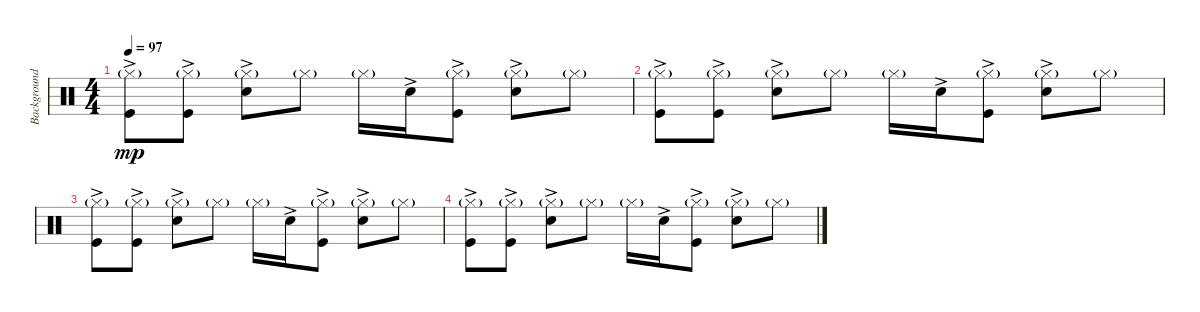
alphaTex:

\track ("Background Drums" "Background") {instrument percussion}
\staff {score}
\articulation defaults
\ts (4 4)
\tempo 97
\clef neutral
\ks c
("Hi-Hat (closed)"{g} "Kick (hit)"{ac}).8{dy mp} ("Hi-Hat (closed)"{g} "Kick (hit)"{ac}).8 ("Hi-Hat (closed)"{g} "Hand Clap (hit)"{ac}).8 "Hi-Hat (closed)"{g}.8 "Hi-Hat (closed)"{g}.16 "Hand Clap (hit)"{ac}.16 ("Hi-Hat (closed)"{g} "Kick (hit)"{ac}).8 ("Hi-Hat (closed)"{g} "Hand Clap (hit)"{ac}).8 "Hi-Hat (closed)"{g}.8 |
("Hi-Hat (closed)"{g} "Kick (hit)"{ac}).8 ("Hi-Hat (closed)"{g} "Kick (hit)"{ac}).8 ("Hi-Hat (closed)"{g} "Hand Clap (hit)"{ac}).8 "Hi-Hat (closed)"{g}.8 "Hi-Hat (closed)"{g}.16 "Hand Clap (hit)"{ac}.16 ("Hi-Hat (closed)"{g} "Kick (hit)"{ac}).8 ("Hi-Hat (closed)"{g} "Hand Clap (hit)"{ac}).8 "Hi-Hat (closed)"{g}.8 |
("Hi-Hat (closed)"{g} "Kick (hit)"{ac}).8 ("Hi-Hat (closed)"{g} "Kick (hit)"{ac}).8 ("Hi-Hat (closed)"{g} "Hand Clap (hit)"{ac}).8 "Hi-Hat (closed)"{g}.8 "Hi-Hat (closed)"{g}.16 "Hand Clap (hit)"{ac}.16 ("Hi-Hat (closed)"{g} "Kick (hit)"{ac}).8 ("Hi-Hat (closed)"{g} "Hand Clap (hit)"{ac}).8 "Hi-Hat (closed)"{g}.8 |
("Hi-Hat (closed)"{g} "Kick (hit)"{ac}).8 ("Hi-Hat (closed)"{g} "Kick (hit)"{ac}).8 ("Hi-Hat (closed)"{g} "Hand Clap (hit)"{ac}).8 "Hi-Hat (closed)"{g}.8 "Hi-Hat (closed)"{g}.16 "Hand Clap (hit)"{ac}.16 ("Hi-Hat (closed)"{g} "Kick (hit)"{ac}).8 ("Hi-Hat (closed)"{g} "Hand Clap (hit)"{ac}).8 "Hi-Hat (closed)"{g}.8
